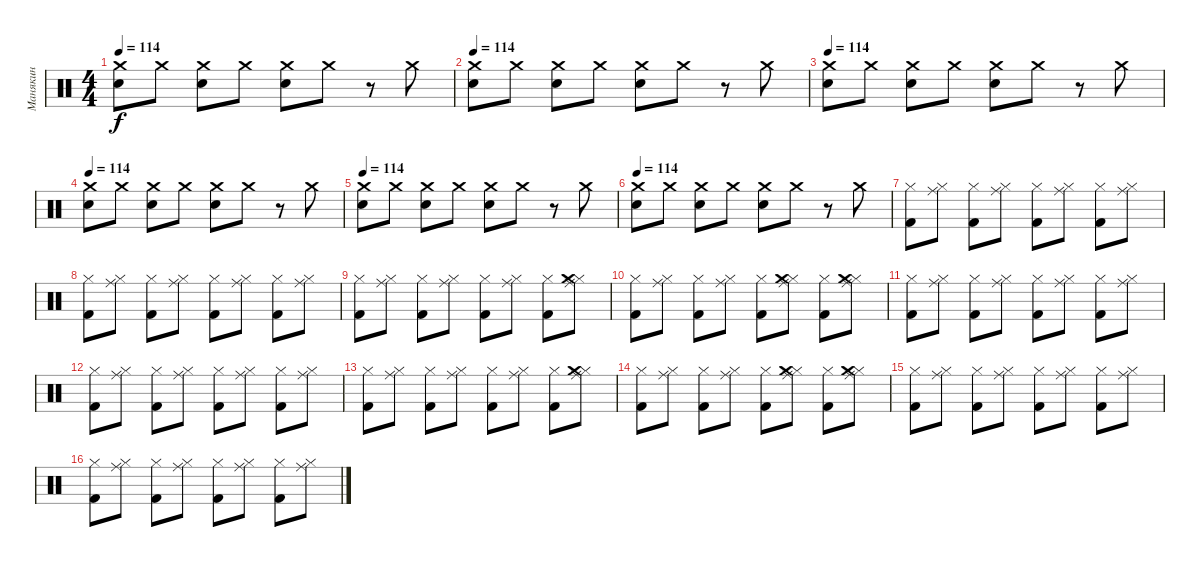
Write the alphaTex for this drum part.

\track ("Манякин" "Манякин") {instrument percussion}
\staff {score}
\articulation defaults
\ts (4 4)
\tempo 114
\clef neutral
\ks c
("Snare (hit) 2" "Crash medium (hit)").8{dy f volume 8} "Crash medium (hit)".8 ("Snare (hit) 2" "Crash medium (hit)").8 "Crash medium (hit)".8 ("Snare (hit) 2" "Crash medium (hit)").8 "Crash medium (hit)".8 r.8 "Crash medium (hit)".8 |
\tempo 114
("Snare (hit) 2" "Crash medium (hit)").8{volume 8} "Crash medium (hit)".8 ("Snare (hit) 2" "Crash medium (hit)").8 "Crash medium (hit)".8 ("Snare (hit) 2" "Crash medium (hit)").8 "Crash medium (hit)".8 r.8 "Crash medium (hit)".8 |
\tempo 114
("Snare (hit) 2" "Crash medium (hit)").8{volume 8} "Crash medium (hit)".8 ("Snare (hit) 2" "Crash medium (hit)").8 "Crash medium (hit)".8 ("Snare (hit) 2" "Crash medium (hit)").8 "Crash medium (hit)".8 r.8 "Crash medium (hit)".8 |
\tempo 114
("Snare (hit) 2" "Crash medium (hit)").8{volume 8} "Crash medium (hit)".8 ("Snare (hit) 2" "Crash medium (hit)").8 "Crash medium (hit)".8 ("Snare (hit) 2" "Crash medium (hit)").8 "Crash medium (hit)".8 r.8 "Crash medium (hit)".8 |
\tempo 114
("Snare (hit) 2" "Crash medium (hit)").8{volume 8} "Crash medium (hit)".8 ("Snare (hit) 2" "Crash medium (hit)").8 "Crash medium (hit)".8 ("Snare (hit) 2" "Crash medium (hit)").8 "Crash medium (hit)".8 r.8 "Crash medium (hit)".8 |
\tempo 114
("Snare (hit) 2" "Crash medium (hit)").8{volume 8} "Crash medium (hit)".8 ("Snare (hit) 2" "Crash medium (hit)").8 "Crash medium (hit)".8 ("Snare (hit) 2" "Crash medium (hit)").8 "Crash medium (hit)".8 r.8 "Crash medium (hit)".8 |
("Kick (hit) 2" "Hi-Hat (closed)").8{volume 16} ("Hi-Hat (closed)" "Ride (middle)").8 ("Kick (hit) 2" "Hi-Hat (closed)").8 ("Hi-Hat (closed)" "Ride (middle)").8 ("Kick (hit) 2" "Hi-Hat (closed)").8 ("Hi-Hat (closed)" "Ride (middle)").8 ("Kick (hit) 2" "Hi-Hat (closed)").8 ("Hi-Hat (closed)" "Ride (middle)").8 |
("Kick (hit) 2" "Hi-Hat (closed)").8 ("Hi-Hat (closed)" "Ride (middle)").8 ("Kick (hit) 2" "Hi-Hat (closed)").8 ("Hi-Hat (closed)" "Ride (middle)").8 ("Kick (hit) 2" "Hi-Hat (closed)").8 ("Hi-Hat (closed)" "Ride (middle)").8 ("Kick (hit) 2" "Hi-Hat (closed)").8 ("Hi-Hat (closed)" "Ride (middle)").8 |
("Kick (hit) 2" "Hi-Hat (closed)").8 ("Hi-Hat (closed)" "Ride (middle)").8 ("Kick (hit) 2" "Hi-Hat (closed)").8 ("Hi-Hat (closed)" "Ride (middle)").8 ("Kick (hit) 2" "Hi-Hat (closed)").8 ("Hi-Hat (closed)" "Ride (middle)").8 ("Kick (hit) 2" "Hi-Hat (closed)").8 ("Hi-Hat (closed)" "Ride (middle)" "Crash medium (hit)").8 |
("Kick (hit) 2" "Hi-Hat (closed)").8 ("Hi-Hat (closed)" "Ride (middle)").8 ("Kick (hit) 2" "Hi-Hat (closed)").8 ("Hi-Hat (closed)" "Ride (middle)").8 ("Kick (hit) 2" "Hi-Hat (closed)").8 ("Hi-Hat (closed)" "Ride (middle)" "Crash medium (hit)").8 ("Kick (hit) 2" "Hi-Hat (closed)").8 ("Hi-Hat (closed)" "Ride (middle)" "Crash medium (hit)").8 |
("Kick (hit) 2" "Hi-Hat (closed)").8 ("Hi-Hat (closed)" "Ride (middle)").8 ("Kick (hit) 2" "Hi-Hat (closed)").8 ("Hi-Hat (closed)" "Ride (middle)").8 ("Kick (hit) 2" "Hi-Hat (closed)").8 ("Hi-Hat (closed)" "Ride (middle)").8 ("Kick (hit) 2" "Hi-Hat (closed)").8 ("Hi-Hat (closed)" "Ride (middle)").8 |
("Kick (hit) 2" "Hi-Hat (closed)").8 ("Hi-Hat (closed)" "Ride (middle)").8 ("Kick (hit) 2" "Hi-Hat (closed)").8 ("Hi-Hat (closed)" "Ride (middle)").8 ("Kick (hit) 2" "Hi-Hat (closed)").8 ("Hi-Hat (closed)" "Ride (middle)").8 ("Kick (hit) 2" "Hi-Hat (closed)").8 ("Hi-Hat (closed)" "Ride (middle)").8 |
("Kick (hit) 2" "Hi-Hat (closed)").8 ("Hi-Hat (closed)" "Ride (middle)").8 ("Kick (hit) 2" "Hi-Hat (closed)").8 ("Hi-Hat (closed)" "Ride (middle)").8 ("Kick (hit) 2" "Hi-Hat (closed)").8 ("Hi-Hat (closed)" "Ride (middle)").8 ("Kick (hit) 2" "Hi-Hat (closed)").8 ("Hi-Hat (closed)" "Ride (middle)" "Crash medium (hit)").8 |
("Kick (hit) 2" "Hi-Hat (closed)").8 ("Hi-Hat (closed)" "Ride (middle)").8 ("Kick (hit) 2" "Hi-Hat (closed)").8 ("Hi-Hat (closed)" "Ride (middle)").8 ("Kick (hit) 2" "Hi-Hat (closed)").8 ("Hi-Hat (closed)" "Ride (middle)" "Crash medium (hit)").8 ("Kick (hit) 2" "Hi-Hat (closed)").8 ("Hi-Hat (closed)" "Ride (middle)" "Crash medium (hit)").8 |
("Kick (hit) 2" "Hi-Hat (closed)").8 ("Hi-Hat (closed)" "Ride (middle)").8 ("Kick (hit) 2" "Hi-Hat (closed)").8 ("Hi-Hat (closed)" "Ride (middle)").8 ("Kick (hit) 2" "Hi-Hat (closed)").8 ("Hi-Hat (closed)" "Ride (middle)").8 ("Kick (hit) 2" "Hi-Hat (closed)").8 ("Hi-Hat (closed)" "Ride (middle)").8 |
("Kick (hit) 2" "Hi-Hat (closed)").8 ("Hi-Hat (closed)" "Ride (middle)").8 ("Kick (hit) 2" "Hi-Hat (closed)").8 ("Hi-Hat (closed)" "Ride (middle)").8 ("Kick (hit) 2" "Hi-Hat (closed)").8 ("Hi-Hat (closed)" "Ride (middle)").8 ("Kick (hit) 2" "Hi-Hat (closed)").8 ("Hi-Hat (closed)" "Ride (middle)").8
